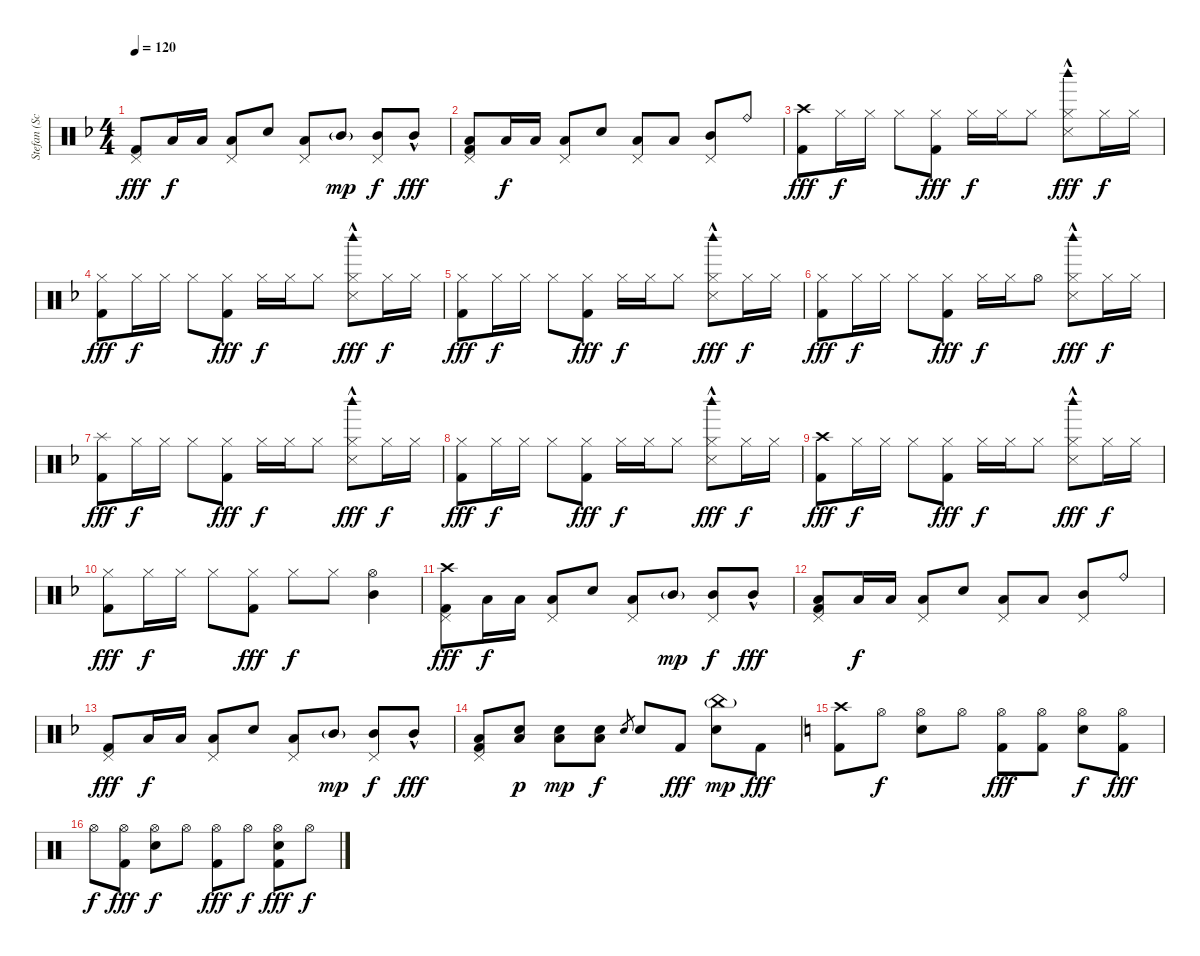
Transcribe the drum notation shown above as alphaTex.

\track ("Stefan (Schlagzeug)" "Stefan (Sc") {instrument percussion}
\staff {score}
\articulation defaults
\ts (4 4)
\tempo 120
\clef neutral
\ks f
("Kick (hit) 2" "Pedal Hi-Hat (hit)").8{dy fff} "Low Tom (hit)".16{dy f} "Low Tom (hit)".16 ("Low Tom (hit)" "Pedal Hi-Hat (hit)").8 "Snare (hit) 2".8 ("Low Tom (hit)" "Pedal Hi-Hat (hit)").8 "Mid Tom (hit)"{g}.8{dy mp} ("Mid Tom (hit)" "Pedal Hi-Hat (hit)").8{dy f} "Mid Tom (hit)"{hac}.8{dy fff} |
("Low Tom (hit)" "Kick (hit) 2" "Pedal Hi-Hat (hit)").8 "Low Tom (hit)".16{dy f} "Low Tom (hit)".16 ("Low Tom (hit)" "Pedal Hi-Hat (hit)").8 "Snare (hit) 2".8 ("Low Tom (hit)" "Pedal Hi-Hat (hit)").8 "Low Tom (hit)".8 ("Mid Tom (hit)" "Pedal Hi-Hat (hit)").8 "Ride (bell)".8 |
("Crash high (hit)" "Kick (hit) 2").8{dy fff} "Hi-Hat (closed)".16{dy f} "Hi-Hat (closed)".16 "Hi-Hat (closed)".8 ("Hi-Hat (closed)" "Kick (hit) 2").8{dy fff} "Hi-Hat (closed)".16{dy f} "Hi-Hat (closed)".16 "Hi-Hat (closed)".8 ("Hi-Hat (closed)" "Woodblock high (hit)"{hac} "Snare (side stick) 3").8{dy fff} "Hi-Hat (closed)".16{dy f} "Hi-Hat (closed)".16 |
("Hi-Hat (closed)" "Kick (hit) 2").8{dy fff} "Hi-Hat (closed)".16{dy f} "Hi-Hat (closed)".16 "Hi-Hat (closed)".8 ("Hi-Hat (closed)" "Kick (hit) 2").8{dy fff} "Hi-Hat (closed)".16{dy f} "Hi-Hat (closed)".16 "Hi-Hat (closed)".8 ("Hi-Hat (closed)" "Woodblock high (hit)"{hac} "Snare (side stick) 3").8{dy fff} "Hi-Hat (closed)".16{dy f} "Hi-Hat (closed)".16 |
("Hi-Hat (closed)" "Kick (hit) 2").8{dy fff} "Hi-Hat (closed)".16{dy f} "Hi-Hat (closed)".16 "Hi-Hat (closed)".8 ("Hi-Hat (closed)" "Kick (hit) 2").8{dy fff} "Hi-Hat (closed)".16{dy f} "Hi-Hat (closed)".16 "Hi-Hat (closed)".8 ("Hi-Hat (closed)" "Woodblock high (hit)"{hac} "Snare (side stick) 3").8{dy fff} "Hi-Hat (closed)".16{dy f} "Hi-Hat (closed)".16 |
("Hi-Hat (closed)" "Kick (hit) 2").8{dy fff} "Hi-Hat (closed)".16{dy f} "Hi-Hat (closed)".16 "Hi-Hat (closed)".8 ("Hi-Hat (closed)" "Kick (hit) 2").8{dy fff} "Hi-Hat (closed)".16{dy f} "Hi-Hat (closed)".16 "Hi-Hat (open)".8 ("Hi-Hat (closed)" "Woodblock high (hit)"{hac} "Snare (side stick) 3").8{dy fff} "Hi-Hat (closed)".16{dy f} "Hi-Hat (closed)".16 |
("Splash (hit)" "Kick (hit) 2").8{dy fff} "Hi-Hat (closed)".16{dy f} "Hi-Hat (closed)".16 "Hi-Hat (closed)".8 ("Hi-Hat (closed)" "Kick (hit) 2").8{dy fff} "Hi-Hat (closed)".16{dy f} "Hi-Hat (closed)".16 "Hi-Hat (closed)".8 ("Hi-Hat (closed)" "Woodblock high (hit)"{hac} "Snare (side stick) 3").8{dy fff} "Hi-Hat (closed)".16{dy f} "Hi-Hat (closed)".16 |
("Hi-Hat (closed)" "Kick (hit) 2").8{dy fff} "Hi-Hat (closed)".16{dy f} "Hi-Hat (closed)".16 "Hi-Hat (closed)".8 ("Hi-Hat (closed)" "Kick (hit) 2").8{dy fff} "Hi-Hat (closed)".16{dy f} "Hi-Hat (closed)".16 "Hi-Hat (closed)".8 ("Hi-Hat (closed)" "Woodblock high (hit)"{hac} "Snare (side stick) 3").8{dy fff} "Hi-Hat (closed)".16{dy f} "Hi-Hat (closed)".16 |
("Crash high (hit)" "Kick (hit) 2").8{dy fff} "Hi-Hat (closed)".16{dy f} "Hi-Hat (closed)".16 "Hi-Hat (closed)".8 ("Hi-Hat (closed)" "Kick (hit) 2").8{dy fff} "Hi-Hat (closed)".16{dy f} "Hi-Hat (closed)".16 "Hi-Hat (closed)".8 ("Hi-Hat (closed)" "Woodblock high (hit)"{hac} "Snare (side stick) 3").8{dy fff} "Hi-Hat (closed)".16{dy f} "Hi-Hat (closed)".16 |
("Hi-Hat (closed)" "Kick (hit) 2").8{dy fff} "Hi-Hat (closed)".16{dy f} "Hi-Hat (closed)".16 "Hi-Hat (closed)".8 ("Hi-Hat (closed)" "Kick (hit) 2").8{dy fff} "Hi-Hat (closed)".8{dy f} "Hi-Hat (closed)".8 ("Hi-Hat (open)" "Mid Tom (hit)").4 |
("Crash high (hit)" "Kick (hit) 2" "Pedal Hi-Hat (hit)").8{dy fff} "Low Tom (hit)".16{dy f} "Low Tom (hit)".16 ("Low Tom (hit)" "Pedal Hi-Hat (hit)").8 "Snare (hit) 2".8 ("Low Tom (hit)" "Pedal Hi-Hat (hit)").8 "Mid Tom (hit)"{g}.8{dy mp} ("Mid Tom (hit)" "Pedal Hi-Hat (hit)").8{dy f} "Mid Tom (hit)"{hac}.8{dy fff} |
("Low Tom (hit)" "Kick (hit) 2" "Pedal Hi-Hat (hit)").8 "Low Tom (hit)".16{dy f} "Low Tom (hit)".16 ("Low Tom (hit)" "Pedal Hi-Hat (hit)").8 "Snare (hit) 2".8 ("Low Tom (hit)" "Pedal Hi-Hat (hit)").8 "Low Tom (hit)".8 ("Mid Tom (hit)" "Pedal Hi-Hat (hit)").8 "Ride (bell)".8 |
("Kick (hit) 2" "Pedal Hi-Hat (hit)").8{dy fff} "Low Tom (hit)".16{dy f} "Low Tom (hit)".16 ("Low Tom (hit)" "Pedal Hi-Hat (hit)").8 "Snare (hit) 2".8 ("Low Tom (hit)" "Pedal Hi-Hat (hit)").8 "Mid Tom (hit)"{g}.8{dy mp} ("Mid Tom (hit)" "Pedal Hi-Hat (hit)").8{dy f} "Mid Tom (hit)"{hac}.8{dy fff} |
("Low Tom (hit)" "Kick (hit) 2" "Pedal Hi-Hat (hit)").8 ("Snare (hit) 2" "Low Tom (hit)").8{dy p} ("Snare (hit) 2" "Low Tom (hit)").8{dy mp} ("Snare (hit) 2" "Low Tom (hit)").8{dy f} "Snare (hit) 2".8{gr} "Snare (hit) 2".8 "Kick (hit) 2".8{dy fff} ("China (hit)"{g} "Snare (hit) 2").8{dy mp} "Kick (hit) 2".8{dy fff} |
\ks c
("Crash high (hit)" "Kick (hit) 2").8 "Hi-Hat (open)".8{dy f} ("Hi-Hat (open)" "Snare (hit) 2").8 "Hi-Hat (open)".8 ("Hi-Hat (open)" "Kick (hit) 2").8{dy fff} ("Hi-Hat (open)" "Kick (hit) 2").8 ("Hi-Hat (open)" "Snare (hit) 2").8{dy f} ("Hi-Hat (open)" "Kick (hit) 2").8{dy fff} |
"Hi-Hat (open)".8{dy f} ("Hi-Hat (open)" "Kick (hit) 2").8{dy fff} ("Hi-Hat (open)" "Snare (hit) 2").8{dy f} "Hi-Hat (open)".8 ("Hi-Hat (open)" "Kick (hit) 2").8{dy fff} "Hi-Hat (open)".8{dy f} ("Hi-Hat (open)" "Snare (hit) 2" "Kick (hit) 2").8{dy fff} "Hi-Hat (open)".8{dy f}
